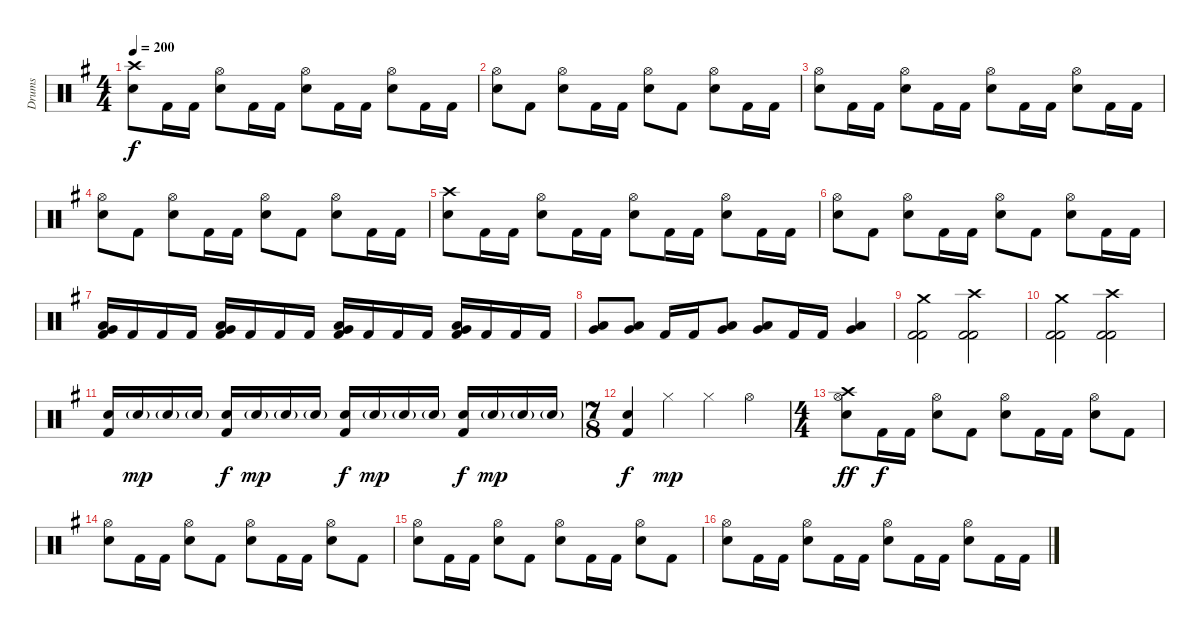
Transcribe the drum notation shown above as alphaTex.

\track ("Drums" "Drums") {instrument percussion}
\staff {score}
\articulation defaults
\ts (4 4)
\tempo 200
\clef neutral
\ks eminor
("Crash high (hit)" "Snare (hit) 2").8{dy f} "Kick (hit) 2".16 "Kick (hit) 2".16 ("Hi-Hat (open)" "Snare (hit) 2").8 "Kick (hit) 2".16 "Kick (hit) 2".16 ("Hi-Hat (open)" "Snare (hit) 2").8 "Kick (hit) 2".16 "Kick (hit) 2".16 ("Hi-Hat (open)" "Snare (hit) 2").8 "Kick (hit) 2".16 "Kick (hit) 2".16 |
("Hi-Hat (open)" "Snare (hit) 2").8 "Kick (hit) 2".8 ("Hi-Hat (open)" "Snare (hit) 2").8 "Kick (hit) 2".16 "Kick (hit) 2".16 ("Hi-Hat (open)" "Snare (hit) 2").8 "Kick (hit) 2".8 ("Hi-Hat (open)" "Snare (hit) 2").8 "Kick (hit) 2".16 "Kick (hit) 2".16 |
("Hi-Hat (open)" "Snare (hit) 2").8 "Kick (hit) 2".16 "Kick (hit) 2".16 ("Hi-Hat (open)" "Snare (hit) 2").8 "Kick (hit) 2".16 "Kick (hit) 2".16 ("Hi-Hat (open)" "Snare (hit) 2").8 "Kick (hit) 2".16 "Kick (hit) 2".16 ("Hi-Hat (open)" "Snare (hit) 2").8 "Kick (hit) 2".16 "Kick (hit) 2".16 |
("Hi-Hat (open)" "Snare (hit) 2").8 "Kick (hit) 2".8 ("Hi-Hat (open)" "Snare (hit) 2").8 "Kick (hit) 2".16 "Kick (hit) 2".16 ("Hi-Hat (open)" "Snare (hit) 2").8 "Kick (hit) 2".8 ("Hi-Hat (open)" "Snare (hit) 2").8 "Kick (hit) 2".16 "Kick (hit) 2".16 |
("Crash high (hit)" "Snare (hit) 2").8 "Kick (hit) 2".16 "Kick (hit) 2".16 ("Hi-Hat (open)" "Snare (hit) 2").8 "Kick (hit) 2".16 "Kick (hit) 2".16 ("Hi-Hat (open)" "Snare (hit) 2").8 "Kick (hit) 2".16 "Kick (hit) 2".16 ("Hi-Hat (open)" "Snare (hit) 2").8 "Kick (hit) 2".16 "Kick (hit) 2".16 |
("Hi-Hat (open)" "Snare (hit) 2").8 "Kick (hit) 2".8 ("Hi-Hat (open)" "Snare (hit) 2").8 "Kick (hit) 2".16 "Kick (hit) 2".16 ("Hi-Hat (open)" "Snare (hit) 2").8 "Kick (hit) 2".8 ("Hi-Hat (open)" "Snare (hit) 2").8 "Kick (hit) 2".16 "Kick (hit) 2".16 |
("Very Low Tom (hit)" "Low Tom (hit)" "Kick (hit) 2").16 "Kick (hit) 2".16 "Kick (hit) 2".16 "Kick (hit) 2".16 ("Very Low Tom (hit)" "Low Tom (hit)" "Kick (hit) 2").16 "Kick (hit) 2".16 "Kick (hit) 2".16 "Kick (hit) 2".16 ("Very Low Tom (hit)" "Low Tom (hit)" "Kick (hit) 2").16 "Kick (hit) 2".16 "Kick (hit) 2".16 "Kick (hit) 2".16 ("Very Low Tom (hit)" "Low Tom (hit)" "Kick (hit) 2").16 "Kick (hit) 2".16 "Kick (hit) 2".16 "Kick (hit) 2".16 |
("Low Tom (hit)" "Very Low Tom (hit)").8 ("Low Tom (hit)" "Very Low Tom (hit)").8 "Kick (hit) 2".16 "Kick (hit) 2".16 ("Low Tom (hit)" "Very Low Tom (hit)").8 ("Low Tom (hit)" "Very Low Tom (hit)").8 "Kick (hit) 2".16 "Kick (hit) 2".16 ("Low Tom (hit)" "Very Low Tom (hit)").4 |
("Kick (hit) 2" "Kick (hit) 2" "Crash medium (hit)").2 ("Kick (hit) 2" "Kick (hit) 2" "Crash high (hit)").2 |
("Kick (hit) 2" "Kick (hit) 2" "Crash medium (hit)").2 ("Kick (hit) 2" "Kick (hit) 2" "Crash high (hit)").2 |
("Snare (hit) 2" "Kick (hit) 2").16 "Snare (hit) 2"{g}.16{dy mp} "Snare (hit) 2"{g}.16 "Snare (hit) 2"{g}.16 ("Snare (hit) 2" "Kick (hit) 2").16{dy f} "Snare (hit) 2"{g}.16{dy mp} "Snare (hit) 2"{g}.16 "Snare (hit) 2"{g}.16 ("Snare (hit) 2" "Kick (hit) 2").16{dy f} "Snare (hit) 2"{g}.16{dy mp} "Snare (hit) 2"{g}.16 "Snare (hit) 2"{g}.16 ("Snare (hit) 2" "Kick (hit) 2").16{dy f} "Snare (hit) 2"{g}.16{dy mp} "Snare (hit) 2"{g}.16 "Snare (hit) 2"{g}.16 |
\ts (7 8)
("Snare (hit) 2" "Kick (hit) 2").4{dy f} "Hi-Hat (closed)".4{dy mp} "Hi-Hat (closed)".4 "Hi-Hat (open)".4 |
\ts (4 4)
("Crash high (hit)" "Hi-Hat (open)" "Snare (hit) 2").8{dy ff} "Kick (hit) 2".16{dy f} "Kick (hit) 2".16 ("Hi-Hat (open)" "Snare (hit) 2").8 "Kick (hit) 2".8 ("Hi-Hat (open)" "Snare (hit) 2").8 "Kick (hit) 2".16 "Kick (hit) 2".16 ("Hi-Hat (open)" "Snare (hit) 2").8 "Kick (hit) 2".8 |
("Hi-Hat (open)" "Snare (hit) 2").8 "Kick (hit) 2".16 "Kick (hit) 2".16 ("Hi-Hat (open)" "Snare (hit) 2").8 "Kick (hit) 2".8 ("Hi-Hat (open)" "Snare (hit) 2").8 "Kick (hit) 2".16 "Kick (hit) 2".16 ("Hi-Hat (open)" "Snare (hit) 2").8 "Kick (hit) 2".8 |
("Hi-Hat (open)" "Snare (hit) 2").8 "Kick (hit) 2".16 "Kick (hit) 2".16 ("Hi-Hat (open)" "Snare (hit) 2").8 "Kick (hit) 2".8 ("Hi-Hat (open)" "Snare (hit) 2").8 "Kick (hit) 2".16 "Kick (hit) 2".16 ("Hi-Hat (open)" "Snare (hit) 2").8 "Kick (hit) 2".8 |
("Hi-Hat (open)" "Snare (hit) 2").8 "Kick (hit) 2".16 "Kick (hit) 2".16 ("Hi-Hat (open)" "Snare (hit) 2").8 "Kick (hit) 2".16 "Kick (hit) 2".16 ("Hi-Hat (open)" "Snare (hit) 2").8 "Kick (hit) 2".16 "Kick (hit) 2".16 ("Hi-Hat (open)" "Snare (hit) 2").8 "Kick (hit) 2".16 "Kick (hit) 2".16
